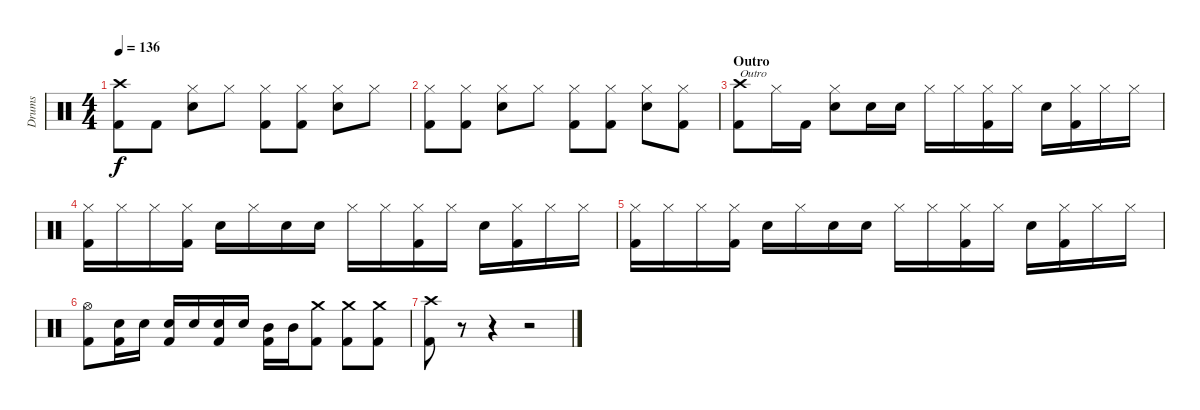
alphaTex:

\track ("Drums" "Drums") {instrument percussion}
\staff {score}
\articulation defaults
\ts (4 4)
\tempo 136
\clef neutral
\ks c
("Crash high (hit)" "Kick (hit) 2").8{dy f} "Kick (hit) 2".8 ("Hi-Hat (closed)" "Electric Snare (hit)").8 "Hi-Hat (closed)".8 ("Hi-Hat (closed)" "Kick (hit) 2").8 ("Hi-Hat (closed)" "Kick (hit) 2").8 ("Hi-Hat (closed)" "Electric Snare (hit)").8 "Hi-Hat (closed)".8 |
("Hi-Hat (closed)" "Kick (hit) 2").8 ("Hi-Hat (closed)" "Kick (hit) 2").8 ("Hi-Hat (closed)" "Electric Snare (hit)").8 "Hi-Hat (closed)".8 ("Hi-Hat (closed)" "Kick (hit) 2").8 ("Hi-Hat (closed)" "Kick (hit) 2").8 ("Hi-Hat (closed)" "Electric Snare (hit)").8 ("Hi-Hat (closed)" "Kick (hit) 2").8 |
\section ("" "Outro")
("Crash high (hit)" "Kick (hit) 2").8{txt "Outro"} "Hi-Hat (closed)".16 "Kick (hit) 2".16 ("Hi-Hat (closed)" "Electric Snare (hit)").8 "Electric Snare (hit)".16 "Electric Snare (hit)".16 "Hi-Hat (closed)".16 "Hi-Hat (closed)".16 ("Hi-Hat (closed)" "Kick (hit) 2").16 "Hi-Hat (closed)".16 "Electric Snare (hit)".16 ("Hi-Hat (closed)" "Kick (hit) 2").16 "Hi-Hat (closed)".16 "Hi-Hat (closed)".16 |
("Hi-Hat (closed)" "Kick (hit) 2").16 "Hi-Hat (closed)".16 "Hi-Hat (closed)".16 ("Hi-Hat (closed)" "Kick (hit) 2").16 "Electric Snare (hit)".16 "Hi-Hat (closed)".16 "Electric Snare (hit)".16 "Electric Snare (hit)".16 "Hi-Hat (closed)".16 "Hi-Hat (closed)".16 ("Hi-Hat (closed)" "Kick (hit) 2").16 "Hi-Hat (closed)".16 "Electric Snare (hit)".16 ("Hi-Hat (closed)" "Kick (hit) 2").16 "Hi-Hat (closed)".16 "Hi-Hat (closed)".16 |
("Hi-Hat (closed)" "Kick (hit) 2").16 "Hi-Hat (closed)".16 "Hi-Hat (closed)".16 ("Hi-Hat (closed)" "Kick (hit) 2").16 "Electric Snare (hit)".16 "Hi-Hat (closed)".16 "Electric Snare (hit)".16 "Electric Snare (hit)".16 "Hi-Hat (closed)".16 "Hi-Hat (closed)".16 ("Hi-Hat (closed)" "Kick (hit) 2").16 "Hi-Hat (closed)".16 "Electric Snare (hit)".16 ("Hi-Hat (closed)" "Kick (hit) 2").16 "Hi-Hat (closed)".16 "Hi-Hat (closed)".16 |
("Hi-Hat (open)" "Kick (hit) 2").8 ("Electric Snare (hit)" "Kick (hit) 2").16 "Electric Snare (hit)".16 ("Electric Snare (hit)" "Kick (hit) 2").16 "Electric Snare (hit)".16 ("Electric Snare (hit)" "Kick (hit) 2").16 "Electric Snare (hit)".16 ("Mid Tom (hit)" "Kick (hit) 2").16 "Mid Tom (hit)".16 ("Crash medium (hit)" "Kick (hit) 2").8 ("Crash medium (hit)" "Kick (hit) 2").8 ("Crash medium (hit)" "Kick (hit) 2").8 |
("Crash high (hit)" "Kick (hit) 2").8 r.8 r.4 r.2
